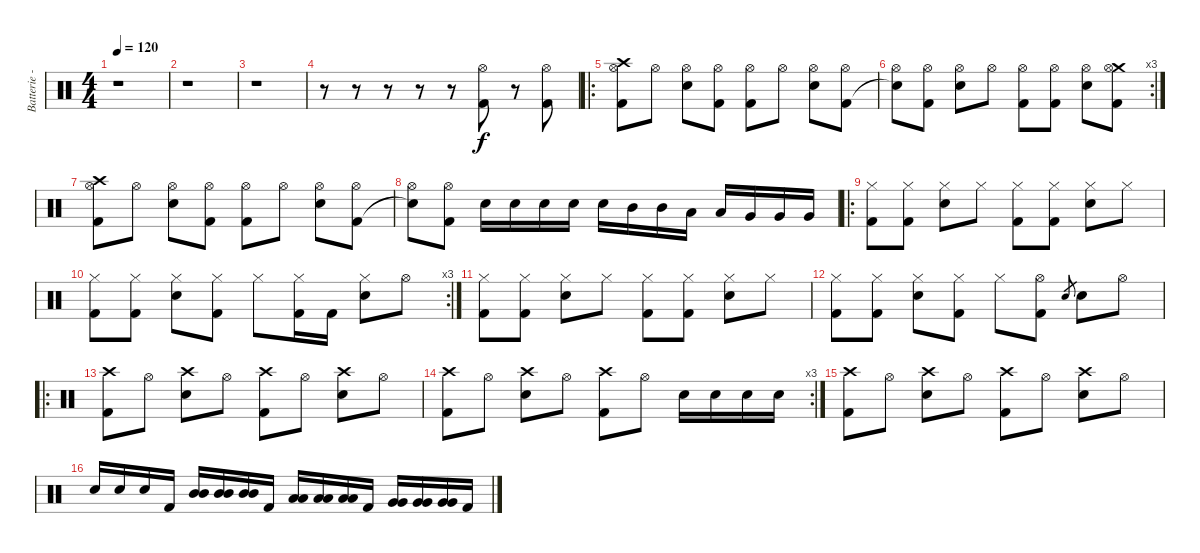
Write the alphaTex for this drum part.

\track ("Batterie - Joe" "Batterie -") {instrument percussion}
\staff {score}
\articulation defaults
\ts (4 4)
\tempo 120
\clef neutral
\ks c
r.1{dy f} |
r.1 |
r.1 |
r.8 r.8 r.8 r.8 r.8 ("Hi-Hat (open)" "Kick (hit) 2").8 r.8 ("Hi-Hat (open)" "Kick (hit) 2").8 |
\ro
("Crash high (hit)" "Hi-Hat (open)" "Kick (hit) 2").8 "Hi-Hat (open)".8 ("Hi-Hat (open)" "Electric Snare (hit)").8 ("Hi-Hat (open)" "Kick (hit) 2").8 ("Hi-Hat (open)" "Kick (hit) 2").8 "Hi-Hat (open)".8 ("Hi-Hat (open)" "Electric Snare (hit)").8 ("Hi-Hat (open)" "Kick (hit) 2").8 |
\rc 3
("Hi-Hat (open)" "Snare (hit)"{t}).8 ("Hi-Hat (open)" "Kick (hit) 2").8 ("Hi-Hat (open)" "Electric Snare (hit)").8 "Hi-Hat (open)".8 ("Hi-Hat (open)" "Kick (hit) 2").8 ("Hi-Hat (open)" "Kick (hit) 2").8 ("Hi-Hat (open)" "Electric Snare (hit)").8 ("Crash medium (hit)" "Hi-Hat (open)" "Kick (hit) 2").8 |
("Crash high (hit)" "Hi-Hat (open)" "Kick (hit) 2").8 "Hi-Hat (open)".8 ("Hi-Hat (open)" "Electric Snare (hit)").8 ("Hi-Hat (open)" "Kick (hit) 2").8 ("Hi-Hat (open)" "Kick (hit) 2").8 "Hi-Hat (open)".8 ("Hi-Hat (open)" "Electric Snare (hit)").8 ("Hi-Hat (open)" "Kick (hit) 2").8 |
("Hi-Hat (open)" "Snare (hit)"{t}).8 ("Hi-Hat (open)" "Kick (hit) 2").8 "Electric Snare (hit)".16 "Electric Snare (hit)".16 "Electric Snare (hit)".16 "Electric Snare (hit)".16 "Electric Snare (hit)".16 "Mid Tom (hit)".16 "Mid Tom (hit)".16 "Low Tom (hit)".16 "Low Tom (hit)".16 "Very Low Tom (hit)".16 "Very Low Tom (hit)".16 "Very Low Tom (hit)".16 |
\ro
("Hi-Hat (closed)" "Kick (hit) 2").8 ("Hi-Hat (closed)" "Kick (hit) 2").8 ("Hi-Hat (closed)" "Electric Snare (hit)").8 "Hi-Hat (closed)".8 ("Hi-Hat (closed)" "Kick (hit) 2").8 ("Hi-Hat (closed)" "Kick (hit) 2").8 ("Hi-Hat (closed)" "Electric Snare (hit)").8 "Hi-Hat (closed)".8 |
\rc 3
("Hi-Hat (closed)" "Kick (hit) 2").8 ("Hi-Hat (closed)" "Kick (hit) 2").8 ("Hi-Hat (closed)" "Electric Snare (hit)").8 ("Hi-Hat (closed)" "Kick (hit) 2").8 "Hi-Hat (closed)".8 ("Hi-Hat (closed)" "Kick (hit) 2").16 "Kick (hit) 2".16 ("Hi-Hat (closed)" "Electric Snare (hit)").8 "Hi-Hat (open)".8 |
("Hi-Hat (closed)" "Kick (hit) 2").8 ("Hi-Hat (closed)" "Kick (hit) 2").8 ("Hi-Hat (closed)" "Electric Snare (hit)").8 "Hi-Hat (closed)".8 ("Hi-Hat (closed)" "Kick (hit) 2").8 ("Hi-Hat (closed)" "Kick (hit) 2").8 ("Hi-Hat (closed)" "Electric Snare (hit)").8 "Hi-Hat (closed)".8 |
("Hi-Hat (closed)" "Kick (hit) 2").8 ("Hi-Hat (closed)" "Kick (hit) 2").8 ("Hi-Hat (closed)" "Electric Snare (hit)").8 ("Hi-Hat (closed)" "Kick (hit) 2").8 "Hi-Hat (closed)".8 ("Hi-Hat (open)" "Kick (hit) 2").8 "Electric Snare (hit)".8{gr} "Electric Snare (hit)".8 "Hi-Hat (open)".8 |
\ro
("Crash high (hit)" "Kick (hit) 2").8 "Hi-Hat (open)".8 ("Crash high (hit)" "Electric Snare (hit)").8 "Hi-Hat (open)".8 ("Crash high (hit)" "Kick (hit) 2").8 "Hi-Hat (open)".8 ("Crash high (hit)" "Electric Snare (hit)").8 "Hi-Hat (open)".8 |
\rc 3
("Crash high (hit)" "Kick (hit) 2").8 "Hi-Hat (open)".8 ("Crash high (hit)" "Electric Snare (hit)").8 "Hi-Hat (open)".8 ("Crash high (hit)" "Kick (hit) 2").8 "Hi-Hat (open)".8 "Electric Snare (hit)".16 "Electric Snare (hit)".16 "Electric Snare (hit)".16 "Electric Snare (hit)".16 |
("Crash high (hit)" "Kick (hit) 2").8 "Hi-Hat (open)".8 ("Crash high (hit)" "Electric Snare (hit)").8 "Hi-Hat (open)".8 ("Crash high (hit)" "Kick (hit) 2").8 "Hi-Hat (open)".8 ("Crash high (hit)" "Electric Snare (hit)").8 "Hi-Hat (open)".8 |
"Electric Snare (hit)".16 "Electric Snare (hit)".16 "Electric Snare (hit)".16 "Kick (hit) 2".16 ("Mid Tom (hit)" "Mid Tom (hit)").16 ("Mid Tom (hit)" "Mid Tom (hit)").16 ("Mid Tom (hit)" "Mid Tom (hit)").16 "Kick (hit) 2".16 ("Low Tom (hit)" "Low Tom (hit)").16 ("Low Tom (hit)" "Low Tom (hit)").16 ("Low Tom (hit)" "Low Tom (hit)").16 "Kick (hit) 2".16 ("Very Low Tom (hit)" "Very Low Tom (hit)").16 ("Very Low Tom (hit)" "Very Low Tom (hit)").16 ("Very Low Tom (hit)" "Very Low Tom (hit)").16 "Kick (hit) 2".16
